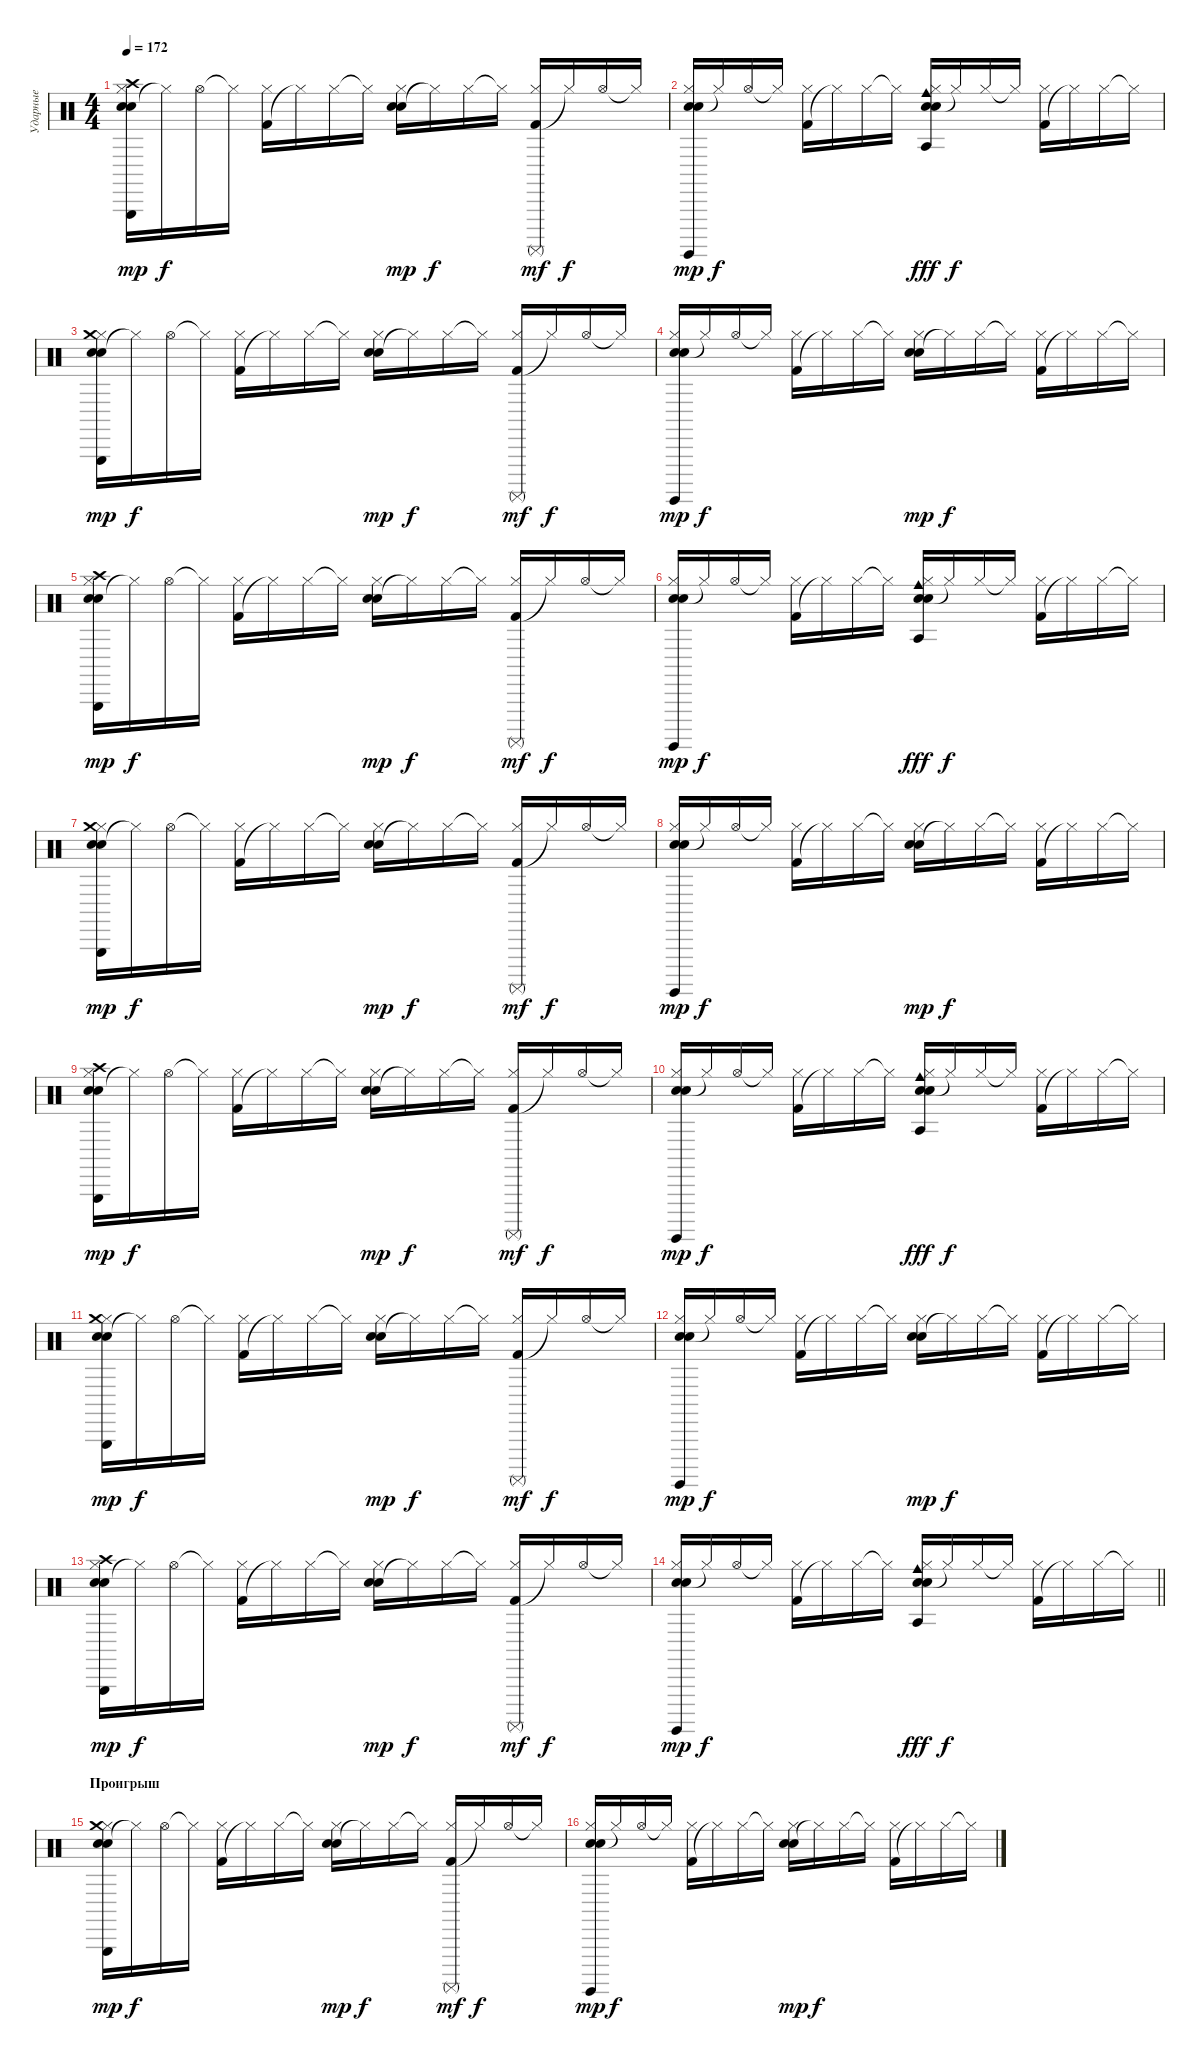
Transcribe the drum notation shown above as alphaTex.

\track ("Ударные" "Ударные") {instrument percussion}
\staff {score}
\articulation defaults
\ts (4 4)
\tempo 172
\clef neutral
\ks c
("Snare (hit) 2" "Electric Snare (hit)" "Hi-Hat (closed)" "Triangle (hit)" "Crash high (hit)").16{dy mp} "Hi-Hat (closed)"{t}.16{dy f} "Hi-Hat (open)".16 "Hi-Hat (closed)"{t}.16 ("Kick (hit) 2" "Hi-Hat (closed)").16 "Hi-Hat (closed)"{t}.16 "Hi-Hat (closed)".16 "Hi-Hat (closed)"{t}.16 ("Snare (hit) 2" "Electric Snare (hit)" "Hi-Hat (closed)").16{dy mp} "Hi-Hat (closed)"{t}.16{dy f} "Hi-Hat (closed)".16 "Hi-Hat (closed)"{t}.16 ("Kick (hit) 2" "Hi-Hat (closed)" "Surdo (mute)").16{dy mf} "Hi-Hat (closed)"{t}.16{dy f} "Hi-Hat (open)".16 "Hi-Hat (closed)"{t}.16 |
("Snare (hit) 2" "Electric Snare (hit)" "Hi-Hat (closed)" "Surdo (hit)").16{dy mp} "Hi-Hat (closed)"{t}.16{dy f} "Hi-Hat (open)".16 "Hi-Hat (closed)"{t}.16 ("Kick (hit) 2" "Hi-Hat (closed)").16 "Hi-Hat (closed)"{t}.16 "Hi-Hat (closed)".16 "Hi-Hat (closed)"{t}.16 ("Snare (hit) 2" "Electric Snare (hit)" "Hi-Hat (closed)" "Cowbell medium (hit)" "Agogo tow (hit)").16{dy fff} "Hi-Hat (closed)"{t}.16{dy f} "Hi-Hat (closed)".16 "Hi-Hat (closed)"{t}.16 ("Kick (hit) 2" "Hi-Hat (closed)").16 "Hi-Hat (closed)"{t}.16 "Hi-Hat (closed)".16 "Hi-Hat (closed)"{t}.16 |
("Snare (hit) 2" "Electric Snare (hit)" "Hi-Hat (closed)" "Triangle (hit)" "Crash medium (hit)").16{dy mp} "Hi-Hat (closed)"{t}.16{dy f} "Hi-Hat (open)".16 "Hi-Hat (closed)"{t}.16 ("Kick (hit) 2" "Hi-Hat (closed)").16 "Hi-Hat (closed)"{t}.16 "Hi-Hat (closed)".16 "Hi-Hat (closed)"{t}.16 ("Snare (hit) 2" "Electric Snare (hit)" "Hi-Hat (closed)").16{dy mp} "Hi-Hat (closed)"{t}.16{dy f} "Hi-Hat (closed)".16 "Hi-Hat (closed)"{t}.16 ("Kick (hit) 2" "Hi-Hat (closed)" "Surdo (mute)").16{dy mf} "Hi-Hat (closed)"{t}.16{dy f} "Hi-Hat (open)".16 "Hi-Hat (closed)"{t}.16 |
("Snare (hit) 2" "Electric Snare (hit)" "Hi-Hat (closed)" "Surdo (hit)").16{dy mp} "Hi-Hat (closed)"{t}.16{dy f} "Hi-Hat (open)".16 "Hi-Hat (closed)"{t}.16 ("Kick (hit) 2" "Hi-Hat (closed)").16 "Hi-Hat (closed)"{t}.16 "Hi-Hat (closed)".16 "Hi-Hat (closed)"{t}.16 ("Snare (hit) 2" "Electric Snare (hit)" "Hi-Hat (closed)").16{dy mp} "Hi-Hat (closed)"{t}.16{dy f} "Hi-Hat (closed)".16 "Hi-Hat (closed)"{t}.16 ("Kick (hit) 2" "Hi-Hat (closed)").16 "Hi-Hat (closed)"{t}.16 "Hi-Hat (closed)".16 "Hi-Hat (closed)"{t}.16 |
("Snare (hit) 2" "Electric Snare (hit)" "Hi-Hat (closed)" "Triangle (hit)" "Crash high (hit)").16{dy mp} "Hi-Hat (closed)"{t}.16{dy f} "Hi-Hat (open)".16 "Hi-Hat (closed)"{t}.16 ("Kick (hit) 2" "Hi-Hat (closed)").16 "Hi-Hat (closed)"{t}.16 "Hi-Hat (closed)".16 "Hi-Hat (closed)"{t}.16 ("Snare (hit) 2" "Electric Snare (hit)" "Hi-Hat (closed)").16{dy mp} "Hi-Hat (closed)"{t}.16{dy f} "Hi-Hat (closed)".16 "Hi-Hat (closed)"{t}.16 ("Kick (hit) 2" "Hi-Hat (closed)" "Surdo (mute)").16{dy mf} "Hi-Hat (closed)"{t}.16{dy f} "Hi-Hat (open)".16 "Hi-Hat (closed)"{t}.16 |
("Snare (hit) 2" "Electric Snare (hit)" "Hi-Hat (closed)" "Surdo (hit)").16{dy mp} "Hi-Hat (closed)"{t}.16{dy f} "Hi-Hat (open)".16 "Hi-Hat (closed)"{t}.16 ("Kick (hit) 2" "Hi-Hat (closed)").16 "Hi-Hat (closed)"{t}.16 "Hi-Hat (closed)".16 "Hi-Hat (closed)"{t}.16 ("Snare (hit) 2" "Electric Snare (hit)" "Hi-Hat (closed)" "Cowbell medium (hit)" "Agogo tow (hit)").16{dy fff} "Hi-Hat (closed)"{t}.16{dy f} "Hi-Hat (closed)".16 "Hi-Hat (closed)"{t}.16 ("Kick (hit) 2" "Hi-Hat (closed)").16 "Hi-Hat (closed)"{t}.16 "Hi-Hat (closed)".16 "Hi-Hat (closed)"{t}.16 |
("Snare (hit) 2" "Electric Snare (hit)" "Hi-Hat (closed)" "Triangle (hit)" "Crash medium (hit)").16{dy mp} "Hi-Hat (closed)"{t}.16{dy f} "Hi-Hat (open)".16 "Hi-Hat (closed)"{t}.16 ("Kick (hit) 2" "Hi-Hat (closed)").16 "Hi-Hat (closed)"{t}.16 "Hi-Hat (closed)".16 "Hi-Hat (closed)"{t}.16 ("Snare (hit) 2" "Electric Snare (hit)" "Hi-Hat (closed)").16{dy mp} "Hi-Hat (closed)"{t}.16{dy f} "Hi-Hat (closed)".16 "Hi-Hat (closed)"{t}.16 ("Kick (hit) 2" "Hi-Hat (closed)" "Surdo (mute)").16{dy mf} "Hi-Hat (closed)"{t}.16{dy f} "Hi-Hat (open)".16 "Hi-Hat (closed)"{t}.16 |
("Snare (hit) 2" "Electric Snare (hit)" "Hi-Hat (closed)" "Surdo (hit)").16{dy mp} "Hi-Hat (closed)"{t}.16{dy f} "Hi-Hat (open)".16 "Hi-Hat (closed)"{t}.16 ("Kick (hit) 2" "Hi-Hat (closed)").16 "Hi-Hat (closed)"{t}.16 "Hi-Hat (closed)".16 "Hi-Hat (closed)"{t}.16 ("Snare (hit) 2" "Electric Snare (hit)" "Hi-Hat (closed)").16{dy mp} "Hi-Hat (closed)"{t}.16{dy f} "Hi-Hat (closed)".16 "Hi-Hat (closed)"{t}.16 ("Kick (hit) 2" "Hi-Hat (closed)").16 "Hi-Hat (closed)"{t}.16 "Hi-Hat (closed)".16 "Hi-Hat (closed)"{t}.16 |
("Snare (hit) 2" "Electric Snare (hit)" "Hi-Hat (closed)" "Triangle (hit)" "Crash high (hit)").16{dy mp} "Hi-Hat (closed)"{t}.16{dy f} "Hi-Hat (open)".16 "Hi-Hat (closed)"{t}.16 ("Kick (hit) 2" "Hi-Hat (closed)").16 "Hi-Hat (closed)"{t}.16 "Hi-Hat (closed)".16 "Hi-Hat (closed)"{t}.16 ("Snare (hit) 2" "Electric Snare (hit)" "Hi-Hat (closed)").16{dy mp} "Hi-Hat (closed)"{t}.16{dy f} "Hi-Hat (closed)".16 "Hi-Hat (closed)"{t}.16 ("Kick (hit) 2" "Hi-Hat (closed)" "Surdo (mute)").16{dy mf} "Hi-Hat (closed)"{t}.16{dy f} "Hi-Hat (open)".16 "Hi-Hat (closed)"{t}.16 |
("Snare (hit) 2" "Electric Snare (hit)" "Hi-Hat (closed)" "Surdo (hit)").16{dy mp} "Hi-Hat (closed)"{t}.16{dy f} "Hi-Hat (open)".16 "Hi-Hat (closed)"{t}.16 ("Kick (hit) 2" "Hi-Hat (closed)").16 "Hi-Hat (closed)"{t}.16 "Hi-Hat (closed)".16 "Hi-Hat (closed)"{t}.16 ("Snare (hit) 2" "Electric Snare (hit)" "Hi-Hat (closed)" "Cowbell medium (hit)" "Agogo tow (hit)").16{dy fff} "Hi-Hat (closed)"{t}.16{dy f} "Hi-Hat (closed)".16 "Hi-Hat (closed)"{t}.16 ("Kick (hit) 2" "Hi-Hat (closed)").16 "Hi-Hat (closed)"{t}.16 "Hi-Hat (closed)".16 "Hi-Hat (closed)"{t}.16 |
("Snare (hit) 2" "Electric Snare (hit)" "Hi-Hat (closed)" "Triangle (hit)" "Crash medium (hit)").16{dy mp} "Hi-Hat (closed)"{t}.16{dy f} "Hi-Hat (open)".16 "Hi-Hat (closed)"{t}.16 ("Kick (hit) 2" "Hi-Hat (closed)").16 "Hi-Hat (closed)"{t}.16 "Hi-Hat (closed)".16 "Hi-Hat (closed)"{t}.16 ("Snare (hit) 2" "Electric Snare (hit)" "Hi-Hat (closed)").16{dy mp} "Hi-Hat (closed)"{t}.16{dy f} "Hi-Hat (closed)".16 "Hi-Hat (closed)"{t}.16 ("Kick (hit) 2" "Hi-Hat (closed)" "Surdo (mute)").16{dy mf} "Hi-Hat (closed)"{t}.16{dy f} "Hi-Hat (open)".16 "Hi-Hat (closed)"{t}.16 |
("Snare (hit) 2" "Electric Snare (hit)" "Hi-Hat (closed)" "Surdo (hit)").16{dy mp} "Hi-Hat (closed)"{t}.16{dy f} "Hi-Hat (open)".16 "Hi-Hat (closed)"{t}.16 ("Kick (hit) 2" "Hi-Hat (closed)").16 "Hi-Hat (closed)"{t}.16 "Hi-Hat (closed)".16 "Hi-Hat (closed)"{t}.16 ("Snare (hit) 2" "Electric Snare (hit)" "Hi-Hat (closed)").16{dy mp} "Hi-Hat (closed)"{t}.16{dy f} "Hi-Hat (closed)".16 "Hi-Hat (closed)"{t}.16 ("Kick (hit) 2" "Hi-Hat (closed)").16 "Hi-Hat (closed)"{t}.16 "Hi-Hat (closed)".16 "Hi-Hat (closed)"{t}.16 |
("Snare (hit) 2" "Electric Snare (hit)" "Hi-Hat (closed)" "Triangle (hit)" "Crash high (hit)").16{dy mp} "Hi-Hat (closed)"{t}.16{dy f} "Hi-Hat (open)".16 "Hi-Hat (closed)"{t}.16 ("Kick (hit) 2" "Hi-Hat (closed)").16 "Hi-Hat (closed)"{t}.16 "Hi-Hat (closed)".16 "Hi-Hat (closed)"{t}.16 ("Snare (hit) 2" "Electric Snare (hit)" "Hi-Hat (closed)").16{dy mp} "Hi-Hat (closed)"{t}.16{dy f} "Hi-Hat (closed)".16 "Hi-Hat (closed)"{t}.16 ("Kick (hit) 2" "Hi-Hat (closed)" "Surdo (mute)").16{dy mf} "Hi-Hat (closed)"{t}.16{dy f} "Hi-Hat (open)".16 "Hi-Hat (closed)"{t}.16 |
\barLineRight lightlight
("Snare (hit) 2" "Electric Snare (hit)" "Hi-Hat (closed)" "Surdo (hit)").16{dy mp} "Hi-Hat (closed)"{t}.16{dy f} "Hi-Hat (open)".16 "Hi-Hat (closed)"{t}.16 ("Kick (hit) 2" "Hi-Hat (closed)").16 "Hi-Hat (closed)"{t}.16 "Hi-Hat (closed)".16 "Hi-Hat (closed)"{t}.16 ("Snare (hit) 2" "Electric Snare (hit)" "Hi-Hat (closed)" "Cowbell medium (hit)" "Agogo tow (hit)").16{dy fff} "Hi-Hat (closed)"{t}.16{dy f} "Hi-Hat (closed)".16 "Hi-Hat (closed)"{t}.16 ("Kick (hit) 2" "Hi-Hat (closed)").16 "Hi-Hat (closed)"{t}.16 "Hi-Hat (closed)".16 "Hi-Hat (closed)"{t}.16 |
\section ("" "Проигрыш")
("Snare (hit) 2" "Electric Snare (hit)" "Hi-Hat (closed)" "Triangle (hit)" "Crash medium (hit)").16{dy mp} "Hi-Hat (closed)"{t}.16{dy f} "Hi-Hat (open)".16 "Hi-Hat (closed)"{t}.16 ("Kick (hit) 2" "Hi-Hat (closed)").16 "Hi-Hat (closed)"{t}.16 "Hi-Hat (closed)".16 "Hi-Hat (closed)"{t}.16 ("Snare (hit) 2" "Electric Snare (hit)" "Hi-Hat (closed)").16{dy mp} "Hi-Hat (closed)"{t}.16{dy f} "Hi-Hat (closed)".16 "Hi-Hat (closed)"{t}.16 ("Kick (hit) 2" "Hi-Hat (closed)" "Surdo (mute)").16{dy mf} "Hi-Hat (closed)"{t}.16{dy f} "Hi-Hat (open)".16 "Hi-Hat (closed)"{t}.16 |
("Snare (hit) 2" "Electric Snare (hit)" "Hi-Hat (closed)" "Surdo (hit)").16{dy mp} "Hi-Hat (closed)"{t}.16{dy f} "Hi-Hat (open)".16 "Hi-Hat (closed)"{t}.16 ("Kick (hit) 2" "Hi-Hat (closed)").16 "Hi-Hat (closed)"{t}.16 "Hi-Hat (closed)".16 "Hi-Hat (closed)"{t}.16 ("Snare (hit) 2" "Electric Snare (hit)" "Hi-Hat (closed)").16{dy mp} "Hi-Hat (closed)"{t}.16{dy f} "Hi-Hat (closed)".16 "Hi-Hat (closed)"{t}.16 ("Kick (hit) 2" "Hi-Hat (closed)").16 "Hi-Hat (closed)"{t}.16 "Hi-Hat (closed)".16 "Hi-Hat (closed)"{t}.16
